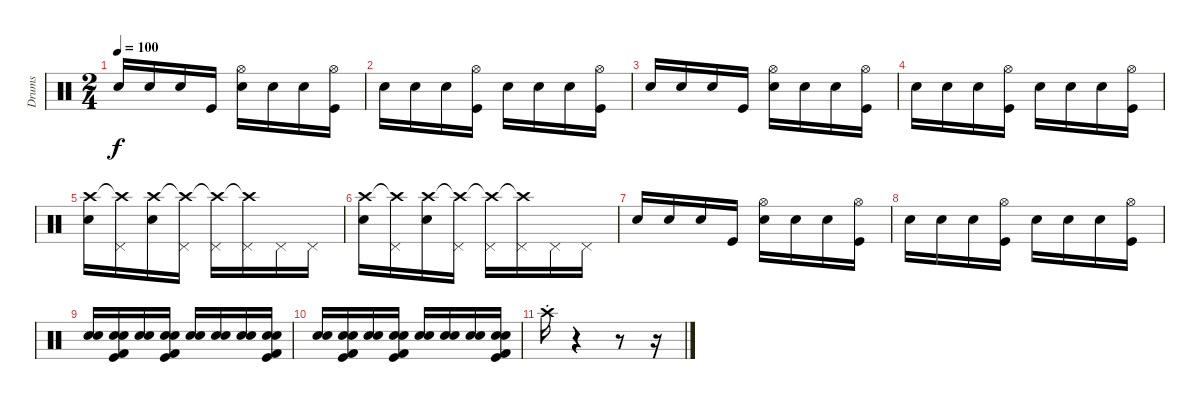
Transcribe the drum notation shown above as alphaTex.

\track ("Drums" "Drums") {instrument percussion}
\staff {score}
\articulation defaults
\ts (2 4)
\tempo 100
\clef neutral
\ks c "Electric Snare (hit)".16{dy f} "Electric Snare (hit)".16 "Electric Snare (hit)".16 "Kick (hit)".16
("Hi-Hat (open)" "Electric Snare (hit)").16 "Electric Snare (hit)".16 "Electric Snare (hit)".16 ("Hi-Hat (open)" "Kick (hit)").16 |
"Electric Snare (hit)".16 "Electric Snare (hit)".16 "Electric Snare (hit)".16 ("Hi-Hat (open)" "Kick (hit)").16 "Electric Snare (hit)".16 "Electric Snare (hit)".16 "Electric Snare (hit)".16 ("Hi-Hat (open)" "Kick (hit)").16 |
"Electric Snare (hit)".16 "Electric Snare (hit)".16 "Electric Snare (hit)".16 "Kick (hit)".16 ("Hi-Hat (open)" "Electric Snare (hit)").16 "Electric Snare (hit)".16 "Electric Snare (hit)".16 ("Hi-Hat (open)" "Kick (hit)").16 |
"Electric Snare (hit)".16 "Electric Snare (hit)".16 "Electric Snare (hit)".16 ("Hi-Hat (open)" "Kick (hit)").16 "Electric Snare (hit)".16 "Electric Snare (hit)".16 "Electric Snare (hit)".16 ("Hi-Hat (open)" "Kick (hit)").16 |
("Electric Snare (hit)" "Crash high (hit)").16 ("Pedal Hi-Hat (hit)" "Crash high (hit)"{t}).16 ("Electric Snare (hit)" "Crash high (hit)").16 ("Pedal Hi-Hat (hit)" "Crash high (hit)"{t}).16 ("Pedal Hi-Hat (hit)" "Crash high (hit)"{t}).16 ("Pedal Hi-Hat (hit)" "Crash high (hit)"{t}).16 "Pedal Hi-Hat (hit)".16 "Pedal Hi-Hat (hit)".16 |
("Electric Snare (hit)" "Crash high (hit)").16 ("Pedal Hi-Hat (hit)" "Crash high (hit)"{t}).16 ("Electric Snare (hit)" "Crash high (hit)").16 ("Pedal Hi-Hat (hit)" "Crash high (hit)"{t}).16 ("Pedal Hi-Hat (hit)" "Crash high (hit)"{t}).16 ("Pedal Hi-Hat (hit)" "Crash high (hit)"{t}).16 "Pedal Hi-Hat (hit)".16 "Pedal Hi-Hat (hit)".16 |
"Electric Snare (hit)".16 "Electric Snare (hit)".16 "Electric Snare (hit)".16 "Kick (hit)".16 ("Hi-Hat (open)" "Electric Snare (hit)").16 "Electric Snare (hit)".16 "Electric Snare (hit)".16 ("Hi-Hat (open)" "Kick (hit)").16 |
"Electric Snare (hit)".16 "Electric Snare (hit)".16 "Electric Snare (hit)".16 ("Hi-Hat (open)" "Kick (hit)").16 "Electric Snare (hit)".16 "Electric Snare (hit)".16 "Electric Snare (hit)".16 ("Hi-Hat (open)" "Kick (hit)").16 |
("Electric Snare (hit)" "Snare (hit) 2").16 ("Electric Snare (hit)" "Snare (hit) 2" "Kick (hit)" "Kick (hit) 2").16 ("Electric Snare (hit)" "Snare (hit) 2").16 ("Electric Snare (hit)" "Snare (hit) 2" "Kick (hit)" "Kick (hit) 2").16 ("Electric Snare (hit)" "Snare (hit) 2").16 ("Electric Snare (hit)" "Snare (hit) 2").16 ("Electric Snare (hit)" "Snare (hit) 2").16 ("Electric Snare (hit)" "Snare (hit) 2" "Kick (hit)" "Kick (hit) 2").16 |
("Electric Snare (hit)" "Snare (hit) 2").16 ("Electric Snare (hit)" "Snare (hit) 2" "Kick (hit)" "Kick (hit) 2").16 ("Electric Snare (hit)" "Snare (hit) 2").16 ("Electric Snare (hit)" "Snare (hit) 2" "Kick (hit)" "Kick (hit) 2").16 ("Electric Snare (hit)" "Snare (hit) 2").16 ("Electric Snare (hit)" "Snare (hit) 2").16 ("Electric Snare (hit)" "Snare (hit) 2").16 ("Electric Snare (hit)" "Snare (hit) 2" "Kick (hit)" "Kick (hit) 2").16 |
"Crash high (hit)"{st}.16 r.4 r.8 r.16
